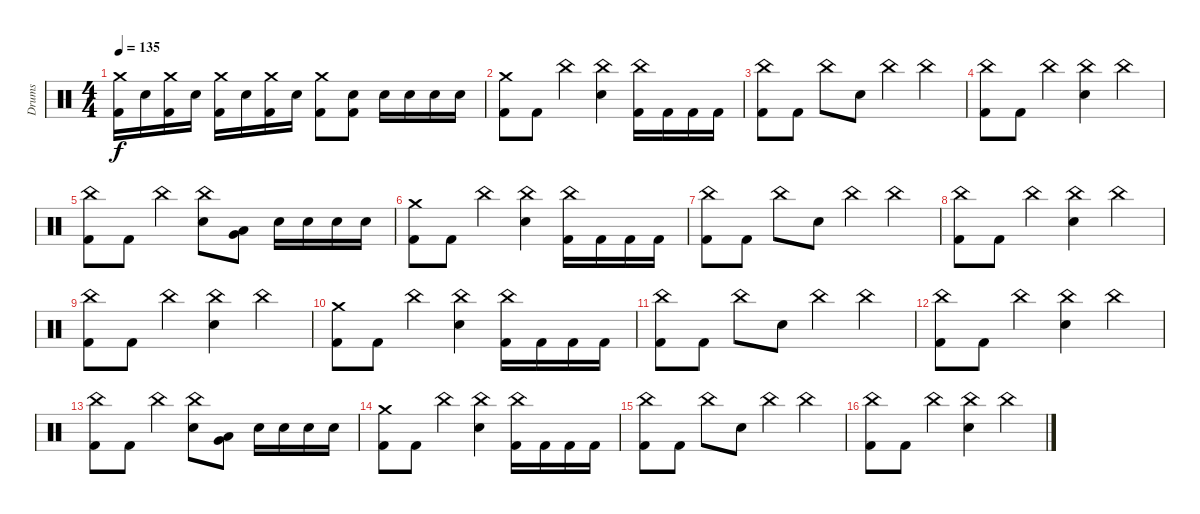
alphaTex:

\track ("Drums" "Drums") {instrument percussion}
\staff {score}
\articulation defaults
\ts (4 4)
\tempo 135
\clef neutral
\ks c
("Crash medium (hit)" "Kick (hit) 2").16{dy f} "Snare (hit) 2".16 ("Crash medium (hit)" "Kick (hit) 2").16 "Snare (hit) 2".16 ("Crash medium (hit)" "Kick (hit) 2").16 "Snare (hit) 2".16 ("Crash medium (hit)" "Kick (hit) 2").16 "Snare (hit) 2".16 ("Crash medium (hit)" "Kick (hit) 2").8 ("Electric Snare (hit)" "Kick (hit) 2").8 "Electric Snare (hit)".16 "Electric Snare (hit)".16 "Electric Snare (hit)".16 "Electric Snare (hit)".16 |
("Crash medium (hit)" "Kick (hit) 2").8 "Kick (hit) 2".8 "China (hit)".4 ("China (hit)" "Snare (hit) 2").4 ("China (hit)" "Kick (hit) 2").16 "Kick (hit) 2".16 "Kick (hit) 2".16 "Kick (hit) 2".16 |
("China (hit)" "Kick (hit) 2").8 "Kick (hit) 2".8 "China (hit)".8 "Snare (hit) 2".8 "China (hit)".4 "China (hit)".4 |
("China (hit)" "Kick (hit) 2").8 "Kick (hit) 2".8 "China (hit)".4 ("China (hit)" "Snare (hit) 2").4 "China (hit)".4 |
("China (hit)" "Kick (hit) 2").8 "Kick (hit) 2".8 "China (hit)".4 ("China (hit)" "Snare (hit) 2").8 ("Very Low Tom (hit)" "Low Floor Tom (hit)").8 "Electric Snare (hit)".16 "Electric Snare (hit)".16 "Electric Snare (hit)".16 "Electric Snare (hit)".16 |
("Crash medium (hit)" "Kick (hit) 2").8 "Kick (hit) 2".8 "China (hit)".4 ("China (hit)" "Snare (hit) 2").4 ("China (hit)" "Kick (hit) 2").16 "Kick (hit) 2".16 "Kick (hit) 2".16 "Kick (hit) 2".16 |
("China (hit)" "Kick (hit) 2").8 "Kick (hit) 2".8 "China (hit)".8 "Snare (hit) 2".8 "China (hit)".4 "China (hit)".4 |
("China (hit)" "Kick (hit) 2").8 "Kick (hit) 2".8 "China (hit)".4 ("China (hit)" "Snare (hit) 2").4 "China (hit)".4 |
("China (hit)" "Kick (hit) 2").8 "Kick (hit) 2".8 "China (hit)".4 ("China (hit)" "Snare (hit) 2").4 "China (hit)".4 |
("Crash medium (hit)" "Kick (hit) 2").8 "Kick (hit) 2".8 "China (hit)".4 ("China (hit)" "Snare (hit) 2").4 ("China (hit)" "Kick (hit) 2").16 "Kick (hit) 2".16 "Kick (hit) 2".16 "Kick (hit) 2".16 |
("China (hit)" "Kick (hit) 2").8 "Kick (hit) 2".8 "China (hit)".8 "Snare (hit) 2".8 "China (hit)".4 "China (hit)".4 |
("China (hit)" "Kick (hit) 2").8 "Kick (hit) 2".8 "China (hit)".4 ("China (hit)" "Snare (hit) 2").4 "China (hit)".4 |
("China (hit)" "Kick (hit) 2").8 "Kick (hit) 2".8 "China (hit)".4 ("China (hit)" "Snare (hit) 2").8 ("Very Low Tom (hit)" "Low Floor Tom (hit)").8 "Electric Snare (hit)".16 "Electric Snare (hit)".16 "Electric Snare (hit)".16 "Electric Snare (hit)".16 |
("Crash medium (hit)" "Kick (hit) 2").8 "Kick (hit) 2".8 "China (hit)".4 ("China (hit)" "Snare (hit) 2").4 ("China (hit)" "Kick (hit) 2").16 "Kick (hit) 2".16 "Kick (hit) 2".16 "Kick (hit) 2".16 |
("China (hit)" "Kick (hit) 2").8 "Kick (hit) 2".8 "China (hit)".8 "Snare (hit) 2".8 "China (hit)".4 "China (hit)".4 |
("China (hit)" "Kick (hit) 2").8 "Kick (hit) 2".8 "China (hit)".4 ("China (hit)" "Snare (hit) 2").4 "China (hit)".4
